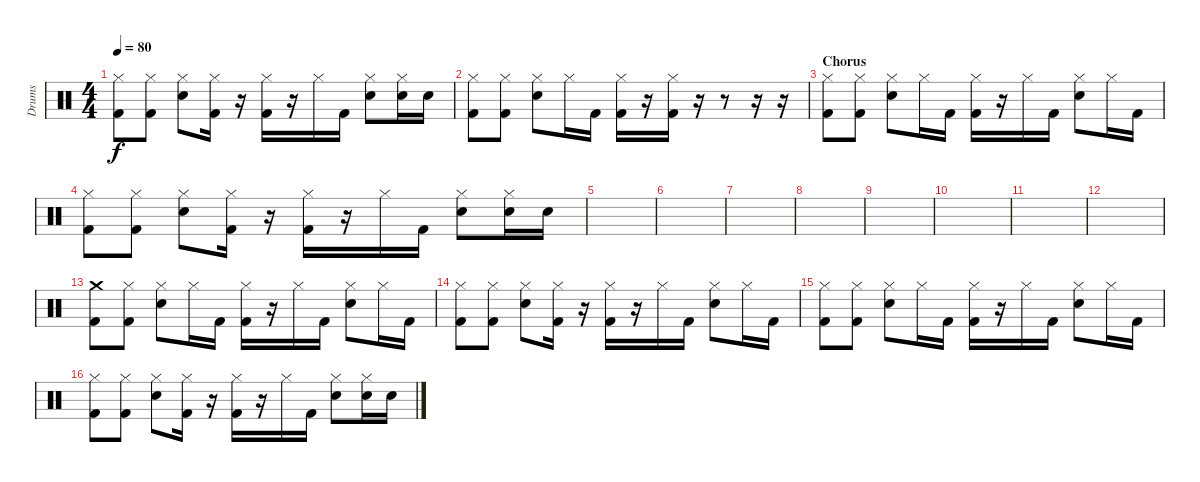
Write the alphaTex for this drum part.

\track ("Drums" "Drums") {instrument percussion}
\staff {score}
\articulation defaults
\ts (4 4)
\tempo 80
\clef neutral
\ks c
("Hi-Hat (closed)" "Kick (hit) 2").8{dy f} ("Hi-Hat (closed)" "Kick (hit) 2").8 ("Hi-Hat (closed)" "Electric Snare (hit)").8 ("Hi-Hat (closed)" "Kick (hit) 2").16 r.16 ("Hi-Hat (closed)" "Kick (hit) 2").16 r.16 "Hi-Hat (closed)".16 "Kick (hit) 2".16 ("Hi-Hat (closed)" "Electric Snare (hit)").8 ("Hi-Hat (closed)" "Electric Snare (hit)").16 "Electric Snare (hit)".16 |
("Hi-Hat (closed)" "Kick (hit) 2").8 ("Hi-Hat (closed)" "Kick (hit) 2").8 ("Hi-Hat (closed)" "Electric Snare (hit)").8 "Hi-Hat (closed)".16 "Kick (hit) 2".16 ("Hi-Hat (closed)" "Kick (hit) 2").16 r.16 ("Hi-Hat (closed)" "Kick (hit) 2").16 r.16 r.8 r.16 r.16 |
\section ("" "Chorus")
("Hi-Hat (closed)" "Kick (hit) 2").8 ("Hi-Hat (closed)" "Kick (hit) 2").8 ("Hi-Hat (closed)" "Electric Snare (hit)").8 "Hi-Hat (closed)".16 "Kick (hit) 2".16 ("Hi-Hat (closed)" "Kick (hit) 2").16 r.16 "Hi-Hat (closed)".16 "Kick (hit) 2".16 ("Hi-Hat (closed)" "Electric Snare (hit)").8 "Hi-Hat (closed)".16 "Kick (hit) 2".16 |
("Hi-Hat (closed)" "Kick (hit) 2").8 ("Hi-Hat (closed)" "Kick (hit) 2").8 ("Hi-Hat (closed)" "Electric Snare (hit)").8 ("Hi-Hat (closed)" "Kick (hit) 2").16 r.16 ("Hi-Hat (closed)" "Kick (hit) 2").16 r.16 "Hi-Hat (closed)".16 "Kick (hit) 2".16 ("Hi-Hat (closed)" "Electric Snare (hit)").8 ("Hi-Hat (closed)" "Electric Snare (hit)").16 "Electric Snare (hit)".16 |
|
|
|
|
|
|
|
|
("Crash medium (hit)" "Kick (hit) 2").8 ("Hi-Hat (closed)" "Kick (hit) 2").8 ("Hi-Hat (closed)" "Electric Snare (hit)").8 "Hi-Hat (closed)".16 "Kick (hit) 2".16 ("Hi-Hat (closed)" "Kick (hit) 2").16 r.16 "Hi-Hat (closed)".16 "Kick (hit) 2".16 ("Hi-Hat (closed)" "Electric Snare (hit)").8 "Hi-Hat (closed)".16 "Kick (hit) 2".16 |
("Hi-Hat (closed)" "Kick (hit) 2").8 ("Hi-Hat (closed)" "Kick (hit) 2").8 ("Hi-Hat (closed)" "Electric Snare (hit)").8 ("Hi-Hat (closed)" "Kick (hit) 2").16 r.16 ("Hi-Hat (closed)" "Kick (hit) 2").16 r.16 "Hi-Hat (closed)".16 "Kick (hit) 2".16 ("Hi-Hat (closed)" "Electric Snare (hit)").8 "Hi-Hat (closed)".16 "Kick (hit) 2".16 |
("Hi-Hat (closed)" "Kick (hit) 2").8 ("Hi-Hat (closed)" "Kick (hit) 2").8 ("Hi-Hat (closed)" "Electric Snare (hit)").8 "Hi-Hat (closed)".16 "Kick (hit) 2".16 ("Hi-Hat (closed)" "Kick (hit) 2").16 r.16 "Hi-Hat (closed)".16 "Kick (hit) 2".16 ("Hi-Hat (closed)" "Electric Snare (hit)").8 "Hi-Hat (closed)".16 "Kick (hit) 2".16 |
("Hi-Hat (closed)" "Kick (hit) 2").8 ("Hi-Hat (closed)" "Kick (hit) 2").8 ("Hi-Hat (closed)" "Electric Snare (hit)").8 ("Hi-Hat (closed)" "Kick (hit) 2").16 r.16 ("Hi-Hat (closed)" "Kick (hit) 2").16 r.16 "Hi-Hat (closed)".16 "Kick (hit) 2".16 ("Hi-Hat (closed)" "Electric Snare (hit)").8 ("Hi-Hat (closed)" "Electric Snare (hit)").16 "Electric Snare (hit)".16
